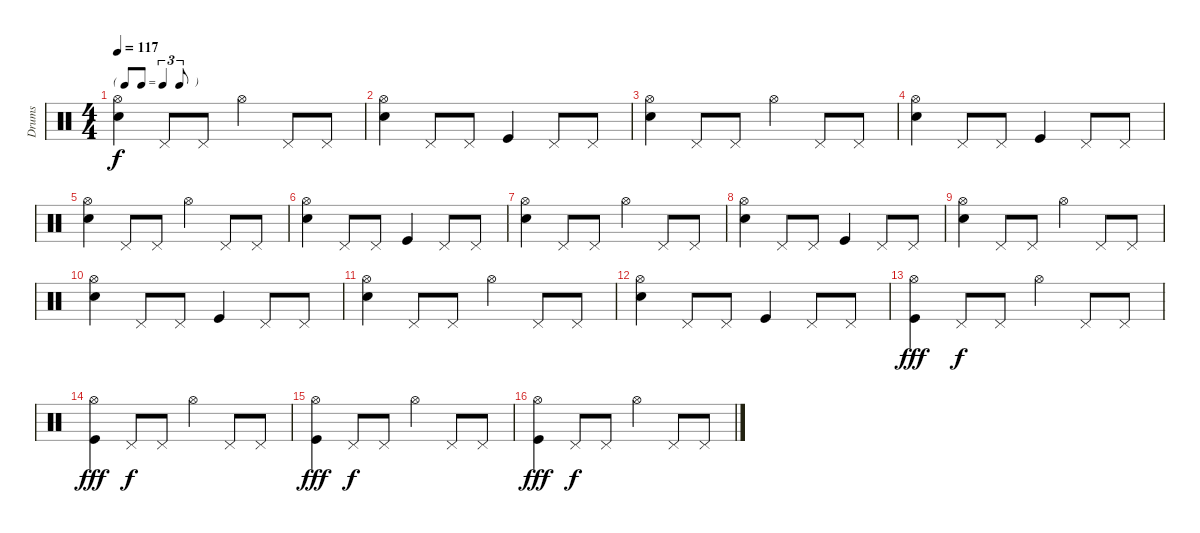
\track ("Drums" "Drums") {instrument percussion}
\staff {score}
\articulation defaults
\ts (4 4)
\tf triplet8th
\tempo 117
\clef neutral
\ks c
("Hi-Hat (open)" "Snare (hit) 2").4{dy f} "Pedal Hi-Hat (hit)".8 "Pedal Hi-Hat (hit)".8 "Hi-Hat (open)".4 "Pedal Hi-Hat (hit)".8 "Pedal Hi-Hat (hit)".8 |
("Hi-Hat (open)" "Snare (hit) 2").4 "Pedal Hi-Hat (hit)".8 "Pedal Hi-Hat (hit)".8 "Kick (hit)".4 "Pedal Hi-Hat (hit)".8 "Pedal Hi-Hat (hit)".8 |
("Hi-Hat (open)" "Snare (hit) 2").4 "Pedal Hi-Hat (hit)".8 "Pedal Hi-Hat (hit)".8 "Hi-Hat (open)".4 "Pedal Hi-Hat (hit)".8 "Pedal Hi-Hat (hit)".8 |
("Hi-Hat (open)" "Snare (hit) 2").4 "Pedal Hi-Hat (hit)".8 "Pedal Hi-Hat (hit)".8 "Kick (hit)".4 "Pedal Hi-Hat (hit)".8 "Pedal Hi-Hat (hit)".8 |
("Hi-Hat (open)" "Snare (hit) 2").4 "Pedal Hi-Hat (hit)".8 "Pedal Hi-Hat (hit)".8 "Hi-Hat (open)".4 "Pedal Hi-Hat (hit)".8 "Pedal Hi-Hat (hit)".8 |
("Hi-Hat (open)" "Snare (hit) 2").4 "Pedal Hi-Hat (hit)".8 "Pedal Hi-Hat (hit)".8 "Kick (hit)".4 "Pedal Hi-Hat (hit)".8 "Pedal Hi-Hat (hit)".8 |
("Hi-Hat (open)" "Snare (hit) 2").4 "Pedal Hi-Hat (hit)".8 "Pedal Hi-Hat (hit)".8 "Hi-Hat (open)".4 "Pedal Hi-Hat (hit)".8 "Pedal Hi-Hat (hit)".8 |
("Hi-Hat (open)" "Snare (hit) 2").4 "Pedal Hi-Hat (hit)".8 "Pedal Hi-Hat (hit)".8 "Kick (hit)".4 "Pedal Hi-Hat (hit)".8 "Pedal Hi-Hat (hit)".8 |
("Hi-Hat (open)" "Snare (hit) 2").4 "Pedal Hi-Hat (hit)".8 "Pedal Hi-Hat (hit)".8 "Hi-Hat (open)".4 "Pedal Hi-Hat (hit)".8 "Pedal Hi-Hat (hit)".8 |
("Hi-Hat (open)" "Snare (hit) 2").4 "Pedal Hi-Hat (hit)".8 "Pedal Hi-Hat (hit)".8 "Kick (hit)".4 "Pedal Hi-Hat (hit)".8 "Pedal Hi-Hat (hit)".8 |
("Hi-Hat (open)" "Snare (hit) 2").4 "Pedal Hi-Hat (hit)".8 "Pedal Hi-Hat (hit)".8 "Hi-Hat (open)".4 "Pedal Hi-Hat (hit)".8 "Pedal Hi-Hat (hit)".8 |
("Hi-Hat (open)" "Snare (hit) 2").4 "Pedal Hi-Hat (hit)".8 "Pedal Hi-Hat (hit)".8 "Kick (hit)".4 "Pedal Hi-Hat (hit)".8 "Pedal Hi-Hat (hit)".8 |
("Hi-Hat (open)" "Kick (hit)").4{dy fff} "Pedal Hi-Hat (hit)".8{dy f} "Pedal Hi-Hat (hit)".8 "Hi-Hat (open)".4 "Pedal Hi-Hat (hit)".8 "Pedal Hi-Hat (hit)".8 |
("Hi-Hat (open)" "Kick (hit)").4{dy fff} "Pedal Hi-Hat (hit)".8{dy f} "Pedal Hi-Hat (hit)".8 "Hi-Hat (open)".4 "Pedal Hi-Hat (hit)".8 "Pedal Hi-Hat (hit)".8 |
("Hi-Hat (open)" "Kick (hit)").4{dy fff} "Pedal Hi-Hat (hit)".8{dy f} "Pedal Hi-Hat (hit)".8 "Hi-Hat (open)".4 "Pedal Hi-Hat (hit)".8 "Pedal Hi-Hat (hit)".8 |
("Hi-Hat (open)" "Kick (hit)").4{dy fff} "Pedal Hi-Hat (hit)".8{dy f} "Pedal Hi-Hat (hit)".8 "Hi-Hat (open)".4 "Pedal Hi-Hat (hit)".8 "Pedal Hi-Hat (hit)".8
